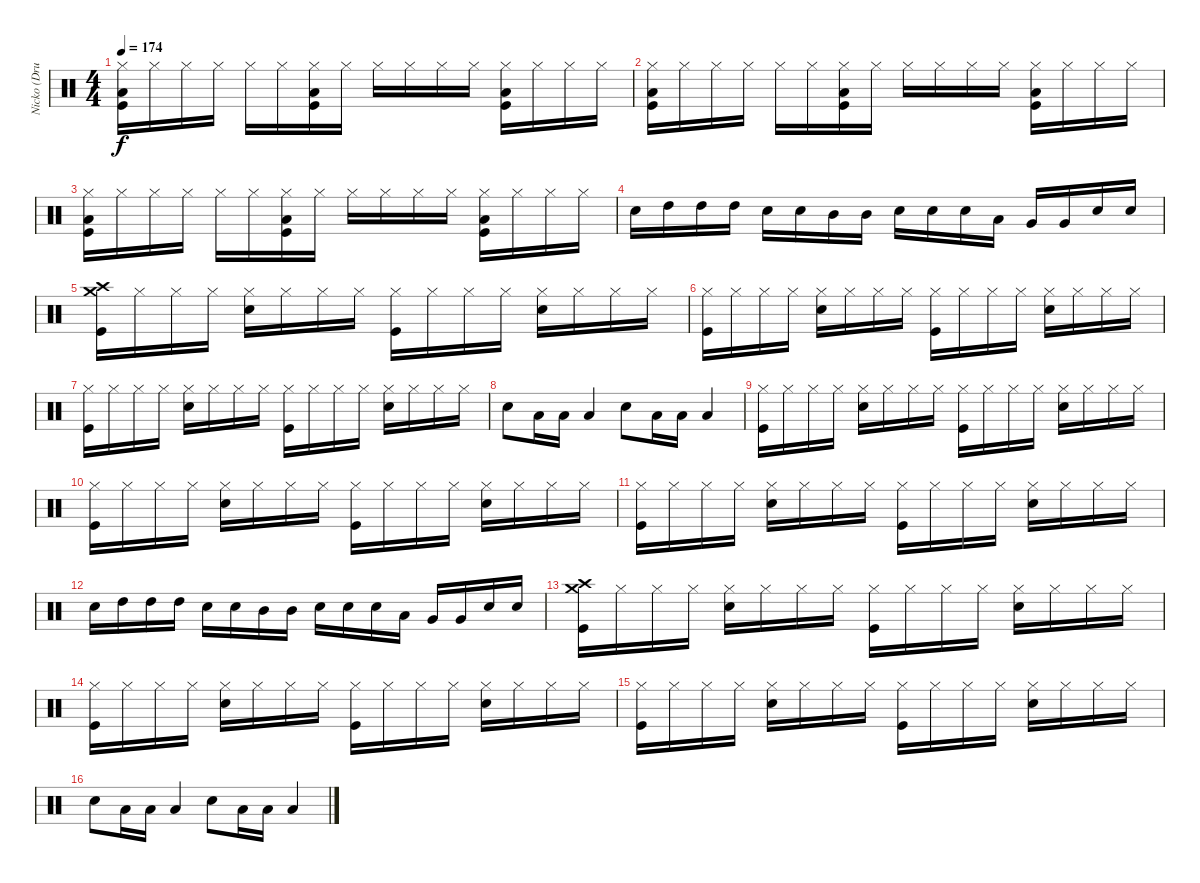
\track ("Nicko (Drums)" "Nicko (Dru") {instrument percussion}
\staff {score}
\articulation defaults
\ts (4 4)
\tempo 174
\clef neutral
\ks c
("Hi-Hat (closed)" "Low Tom (hit)" "Kick (hit)").16{dy f} "Hi-Hat (closed)".16 "Hi-Hat (closed)".16 "Hi-Hat (closed)".16 "Hi-Hat (closed)".16 "Hi-Hat (closed)".16 ("Hi-Hat (closed)" "Low Tom (hit)" "Kick (hit)").16 "Hi-Hat (closed)".16 "Hi-Hat (closed)".16 "Hi-Hat (closed)".16 "Hi-Hat (closed)".16 "Hi-Hat (closed)".16 ("Hi-Hat (closed)" "Low Tom (hit)" "Kick (hit)").16 "Hi-Hat (closed)".16 "Hi-Hat (closed)".16 "Hi-Hat (closed)".16 |
("Hi-Hat (closed)" "Low Tom (hit)" "Kick (hit)").16 "Hi-Hat (closed)".16 "Hi-Hat (closed)".16 "Hi-Hat (closed)".16 "Hi-Hat (closed)".16 "Hi-Hat (closed)".16 ("Hi-Hat (closed)" "Low Tom (hit)" "Kick (hit)").16 "Hi-Hat (closed)".16 "Hi-Hat (closed)".16 "Hi-Hat (closed)".16 "Hi-Hat (closed)".16 "Hi-Hat (closed)".16 ("Hi-Hat (closed)" "Low Tom (hit)" "Kick (hit)").16 "Hi-Hat (closed)".16 "Hi-Hat (closed)".16 "Hi-Hat (closed)".16 |
("Hi-Hat (closed)" "Low Tom (hit)" "Kick (hit)").16 "Hi-Hat (closed)".16 "Hi-Hat (closed)".16 "Hi-Hat (closed)".16 "Hi-Hat (closed)".16 "Hi-Hat (closed)".16 ("Hi-Hat (closed)" "Low Tom (hit)" "Kick (hit)").16 "Hi-Hat (closed)".16 "Hi-Hat (closed)".16 "Hi-Hat (closed)".16 "Hi-Hat (closed)".16 "Hi-Hat (closed)".16 ("Hi-Hat (closed)" "Low Tom (hit)" "Kick (hit)").16 "Hi-Hat (closed)".16 "Hi-Hat (closed)".16 "Hi-Hat (closed)".16 |
"Electric Snare (hit)".16 "High Tom (hit)".16 "High Tom (hit)".16 "High Tom (hit)".16 "Electric Snare (hit)".16 "Electric Snare (hit)".16 "Mid Tom (hit)".16 "Mid Tom (hit)".16 "Electric Snare (hit)".16 "Electric Snare (hit)".16 "Electric Snare (hit)".16 "Low Tom (hit)".16 "Very Low Tom (hit)".16 "Very Low Tom (hit)".16 "Electric Snare (hit)".16 "Electric Snare (hit)".16 |
("Crash high (hit)" "Crash medium (hit)" "Kick (hit)").16 "Hi-Hat (closed)".16 "Hi-Hat (closed)".16 "Hi-Hat (closed)".16 ("Hi-Hat (closed)" "Electric Snare (hit)").16 "Hi-Hat (closed)".16 "Hi-Hat (closed)".16 "Hi-Hat (closed)".16 ("Hi-Hat (closed)" "Kick (hit)").16 "Hi-Hat (closed)".16 "Hi-Hat (closed)".16 "Hi-Hat (closed)".16 ("Hi-Hat (closed)" "Electric Snare (hit)").16 "Hi-Hat (closed)".16 "Hi-Hat (closed)".16 "Hi-Hat (closed)".16 |
("Hi-Hat (closed)" "Kick (hit)").16 "Hi-Hat (closed)".16 "Hi-Hat (closed)".16 "Hi-Hat (closed)".16 ("Hi-Hat (closed)" "Electric Snare (hit)").16 "Hi-Hat (closed)".16 "Hi-Hat (closed)".16 "Hi-Hat (closed)".16 ("Hi-Hat (closed)" "Kick (hit)").16 "Hi-Hat (closed)".16 "Hi-Hat (closed)".16 "Hi-Hat (closed)".16 ("Hi-Hat (closed)" "Electric Snare (hit)").16 "Hi-Hat (closed)".16 "Hi-Hat (closed)".16 "Hi-Hat (closed)".16 |
("Hi-Hat (closed)" "Kick (hit)").16 "Hi-Hat (closed)".16 "Hi-Hat (closed)".16 "Hi-Hat (closed)".16 ("Hi-Hat (closed)" "Electric Snare (hit)").16 "Hi-Hat (closed)".16 "Hi-Hat (closed)".16 "Hi-Hat (closed)".16 ("Hi-Hat (closed)" "Kick (hit)").16 "Hi-Hat (closed)".16 "Hi-Hat (closed)".16 "Hi-Hat (closed)".16 ("Hi-Hat (closed)" "Electric Snare (hit)").16 "Hi-Hat (closed)".16 "Hi-Hat (closed)".16 "Hi-Hat (closed)".16 |
"Snare (hit) 2".8 "Low Tom (hit)".16 "Low Tom (hit)".16 "Low Tom (hit)".4 "Snare (hit) 2".8 "Low Tom (hit)".16 "Low Tom (hit)".16 "Low Tom (hit)".4 |
("Hi-Hat (closed)" "Kick (hit)").16 "Hi-Hat (closed)".16 "Hi-Hat (closed)".16 "Hi-Hat (closed)".16 ("Hi-Hat (closed)" "Electric Snare (hit)").16 "Hi-Hat (closed)".16 "Hi-Hat (closed)".16 "Hi-Hat (closed)".16 ("Hi-Hat (closed)" "Kick (hit)").16 "Hi-Hat (closed)".16 "Hi-Hat (closed)".16 "Hi-Hat (closed)".16 ("Hi-Hat (closed)" "Electric Snare (hit)").16 "Hi-Hat (closed)".16 "Hi-Hat (closed)".16 "Hi-Hat (closed)".16 |
("Hi-Hat (closed)" "Kick (hit)").16 "Hi-Hat (closed)".16 "Hi-Hat (closed)".16 "Hi-Hat (closed)".16 ("Hi-Hat (closed)" "Electric Snare (hit)").16 "Hi-Hat (closed)".16 "Hi-Hat (closed)".16 "Hi-Hat (closed)".16 ("Hi-Hat (closed)" "Kick (hit)").16 "Hi-Hat (closed)".16 "Hi-Hat (closed)".16 "Hi-Hat (closed)".16 ("Hi-Hat (closed)" "Electric Snare (hit)").16 "Hi-Hat (closed)".16 "Hi-Hat (closed)".16 "Hi-Hat (closed)".16 |
("Hi-Hat (closed)" "Kick (hit)").16 "Hi-Hat (closed)".16 "Hi-Hat (closed)".16 "Hi-Hat (closed)".16 ("Hi-Hat (closed)" "Electric Snare (hit)").16 "Hi-Hat (closed)".16 "Hi-Hat (closed)".16 "Hi-Hat (closed)".16 ("Hi-Hat (closed)" "Kick (hit)").16 "Hi-Hat (closed)".16 "Hi-Hat (closed)".16 "Hi-Hat (closed)".16 ("Hi-Hat (closed)" "Electric Snare (hit)").16 "Hi-Hat (closed)".16 "Hi-Hat (closed)".16 "Hi-Hat (closed)".16 |
"Electric Snare (hit)".16 "High Tom (hit)".16 "High Tom (hit)".16 "High Tom (hit)".16 "Electric Snare (hit)".16 "Electric Snare (hit)".16 "Mid Tom (hit)".16 "Mid Tom (hit)".16 "Electric Snare (hit)".16 "Electric Snare (hit)".16 "Electric Snare (hit)".16 "Low Tom (hit)".16 "Very Low Tom (hit)".16 "Very Low Tom (hit)".16 "Electric Snare (hit)".16 "Electric Snare (hit)".16 |
("Crash high (hit)" "Crash medium (hit)" "Kick (hit)").16 "Hi-Hat (closed)".16 "Hi-Hat (closed)".16 "Hi-Hat (closed)".16 ("Hi-Hat (closed)" "Electric Snare (hit)").16 "Hi-Hat (closed)".16 "Hi-Hat (closed)".16 "Hi-Hat (closed)".16 ("Hi-Hat (closed)" "Kick (hit)").16 "Hi-Hat (closed)".16 "Hi-Hat (closed)".16 "Hi-Hat (closed)".16 ("Hi-Hat (closed)" "Electric Snare (hit)").16 "Hi-Hat (closed)".16 "Hi-Hat (closed)".16 "Hi-Hat (closed)".16 |
("Hi-Hat (closed)" "Kick (hit)").16 "Hi-Hat (closed)".16 "Hi-Hat (closed)".16 "Hi-Hat (closed)".16 ("Hi-Hat (closed)" "Electric Snare (hit)").16 "Hi-Hat (closed)".16 "Hi-Hat (closed)".16 "Hi-Hat (closed)".16 ("Hi-Hat (closed)" "Kick (hit)").16 "Hi-Hat (closed)".16 "Hi-Hat (closed)".16 "Hi-Hat (closed)".16 ("Hi-Hat (closed)" "Electric Snare (hit)").16 "Hi-Hat (closed)".16 "Hi-Hat (closed)".16 "Hi-Hat (closed)".16 |
("Hi-Hat (closed)" "Kick (hit)").16 "Hi-Hat (closed)".16 "Hi-Hat (closed)".16 "Hi-Hat (closed)".16 ("Hi-Hat (closed)" "Electric Snare (hit)").16 "Hi-Hat (closed)".16 "Hi-Hat (closed)".16 "Hi-Hat (closed)".16 ("Hi-Hat (closed)" "Kick (hit)").16 "Hi-Hat (closed)".16 "Hi-Hat (closed)".16 "Hi-Hat (closed)".16 ("Hi-Hat (closed)" "Electric Snare (hit)").16 "Hi-Hat (closed)".16 "Hi-Hat (closed)".16 "Hi-Hat (closed)".16 |
"Snare (hit) 2".8 "Low Tom (hit)".16 "Low Tom (hit)".16 "Low Tom (hit)".4 "Snare (hit) 2".8 "Low Tom (hit)".16 "Low Tom (hit)".16 "Low Tom (hit)".4
